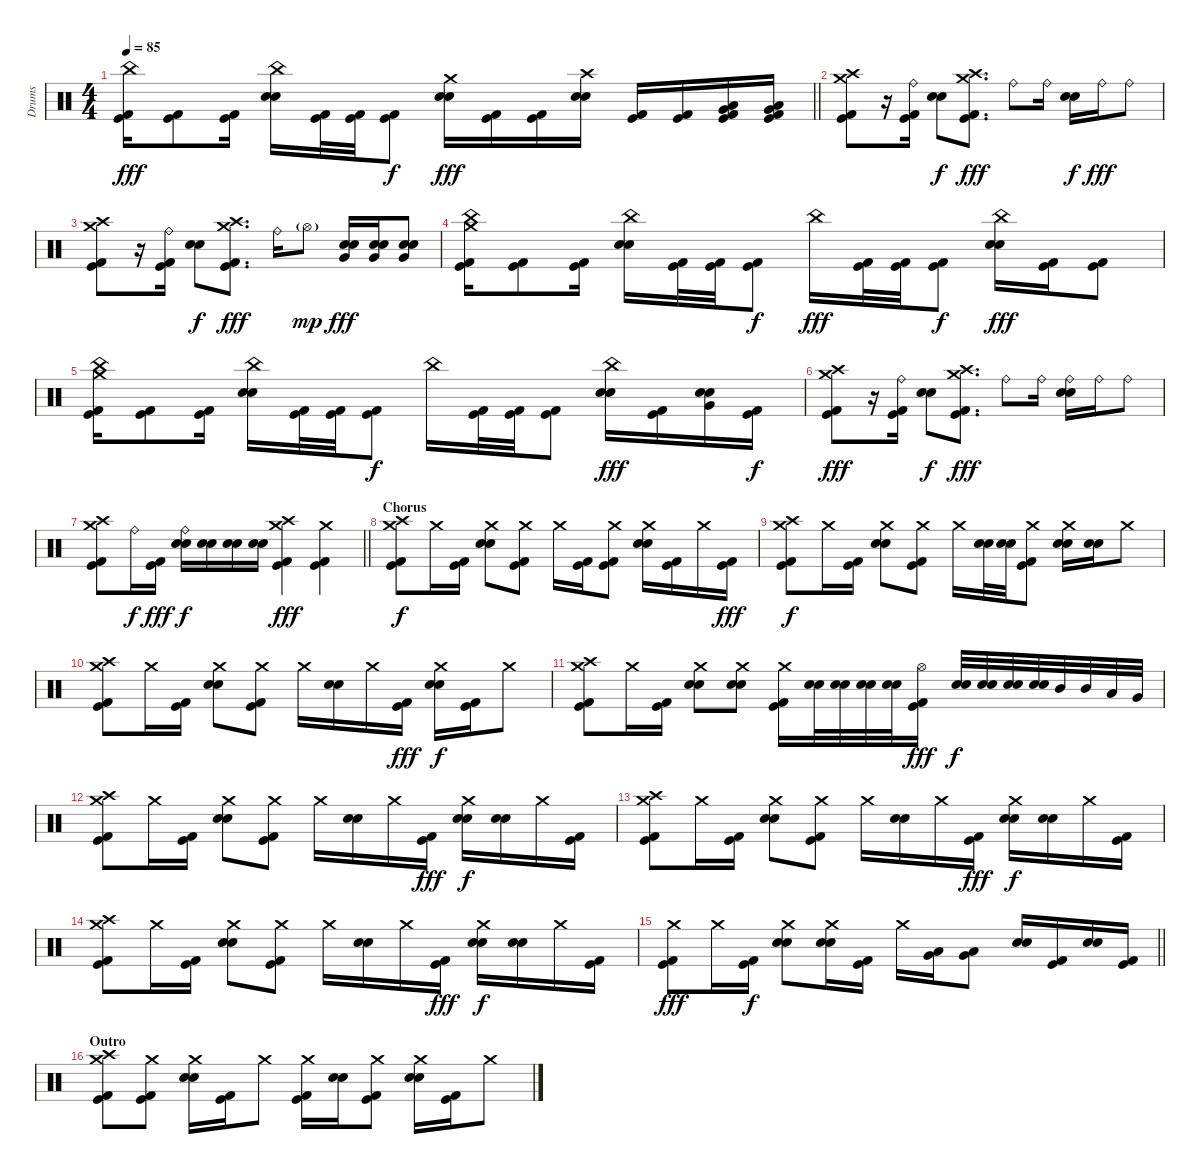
\track ("Drums" "Drums") {instrument percussion}
\staff {score}
\articulation defaults
\ts (4 4)
\tempo 85
\clef neutral
\barLineRight lightlight
\ks c
("China (hit)" "Kick (hit)" "Kick (hit) 2").16{dy fff} ("Kick (hit)" "Kick (hit) 2").8 ("Kick (hit)" "Kick (hit) 2").16 ("China (hit)" "Electric Snare (hit)" "Snare (hit) 2").16 ("Kick (hit)" "Kick (hit) 2").32 ("Kick (hit)" "Kick (hit) 2").32 ("Kick (hit)" "Kick (hit) 2").8{dy f} ("Crash medium (hit)" "Electric Snare (hit)" "Snare (hit) 2").16{dy fff} ("Kick (hit)" "Kick (hit) 2").16 ("Kick (hit)" "Kick (hit) 2").16 ("Crash high (hit)" "Electric Snare (hit)" "Snare (hit) 2").16 ("Kick (hit)" "Kick (hit) 2").16 ("Kick (hit)" "Kick (hit) 2").16 ("Very Low Tom (hit)" "Low Floor Tom (hit)" "Kick (hit)" "Kick (hit) 2").16 ("Very Low Tom (hit)" "Low Floor Tom (hit)" "Kick (hit)" "Kick (hit) 2").16 |
\section ("" " ")
("Crash high (hit)" "Crash medium (hit)" "Kick (hit)" "Kick (hit) 2").8 r.16 ("Ride (bell)" "Kick (hit)" "Kick (hit) 2").16 ("Electric Snare (hit)" "Snare (hit) 2").8{dy f} ("Crash medium (hit)" "Crash high (hit)" "Kick (hit)" "Kick (hit) 2").8{d dy fff} "Ride (bell)".8 "Ride (bell)".16 ("Electric Snare (hit)" "Snare (hit) 2").16{dy f} "Ride (bell)".16{dy fff} "Ride (bell)".8 |
("Crash high (hit)" "Crash medium (hit)" "Kick (hit)" "Kick (hit) 2").8 r.16 ("Ride (bell)" "Kick (hit)" "Kick (hit) 2").16 ("Electric Snare (hit)" "Snare (hit) 2").8{dy f} ("Crash medium (hit)" "Crash high (hit)" "Kick (hit)" "Kick (hit) 2").8{d dy fff} "Ride (bell)".16 "Hi-Hat (open)"{g}.8{dy mp} ("Electric Snare (hit)" "Snare (hit) 2" "Very Low Tom (hit)").16{dy fff} ("Electric Snare (hit)" "Snare (hit) 2" "Very Low Tom (hit)").16 ("Electric Snare (hit)" "Snare (hit) 2" "Very Low Tom (hit)").8 |
("Crash medium (hit)" "China (hit)" "Kick (hit)" "Kick (hit) 2").16 ("Kick (hit)" "Kick (hit) 2").8 ("Kick (hit)" "Kick (hit) 2").16 ("China (hit)" "Electric Snare (hit)" "Snare (hit) 2").16 ("Kick (hit)" "Kick (hit) 2").32 ("Kick (hit)" "Kick (hit) 2").32 ("Kick (hit)" "Kick (hit) 2").8{dy f} "China (hit)".16{dy fff} ("Kick (hit)" "Kick (hit) 2").32 ("Kick (hit)" "Kick (hit) 2").32 ("Kick (hit)" "Kick (hit) 2").8{dy f} ("China (hit)" "Electric Snare (hit)" "Snare (hit) 2").16{dy fff} ("Kick (hit)" "Kick (hit) 2").16 ("Kick (hit)" "Kick (hit) 2").8 |
("Crash medium (hit)" "China (hit)" "Kick (hit)" "Kick (hit) 2").16 ("Kick (hit)" "Kick (hit) 2").8 ("Kick (hit)" "Kick (hit) 2").16 ("China (hit)" "Electric Snare (hit)" "Snare (hit) 2").16 ("Kick (hit)" "Kick (hit) 2").32 ("Kick (hit)" "Kick (hit) 2").32 ("Kick (hit)" "Kick (hit) 2").8{dy f} "China (hit)".16 ("Kick (hit)" "Kick (hit) 2").32 ("Kick (hit)" "Kick (hit) 2").32 ("Kick (hit)" "Kick (hit) 2").8 ("China (hit)" "Electric Snare (hit)" "Snare (hit) 2").16{dy fff} ("Kick (hit)" "Kick (hit) 2").16 ("Very Low Tom (hit)" "Electric Snare (hit)" "Snare (hit) 2").16 ("Kick (hit)" "Kick (hit) 2").16{dy f} |
("Crash high (hit)" "Crash medium (hit)" "Kick (hit)" "Kick (hit) 2").8{dy fff} r.16 ("Ride (bell)" "Kick (hit)" "Kick (hit) 2").16 ("Electric Snare (hit)" "Snare (hit) 2").8{dy f} ("Crash medium (hit)" "Crash high (hit)" "Kick (hit)" "Kick (hit) 2").8{d dy fff} "Ride (bell)".8 "Ride (bell)".16 ("Ride (bell)" "Electric Snare (hit)" "Snare (hit) 2").16 "Ride (bell)".16 "Ride (bell)".8 |
\barLineRight lightlight
("Crash high (hit)" "Crash medium (hit)" "Kick (hit)" "Kick (hit) 2").8 "Ride (bell)".16{dy f} ("Kick (hit)" "Kick (hit) 2").16{dy fff} ("Ride (bell)" "Electric Snare (hit)" "Snare (hit) 2").16{dy f} ("Electric Snare (hit)" "Snare (hit) 2").16 ("Electric Snare (hit)" "Snare (hit) 2").16 ("Electric Snare (hit)" "Snare (hit) 2").16 ("Crash medium (hit)" "Crash high (hit)" "Kick (hit)" "Kick (hit) 2").4{dy fff} ("Crash medium (hit)" "Kick (hit)" "Kick (hit) 2").4 |
\section ("" "Chorus")
("Crash high (hit)" "Crash medium (hit)" "Kick (hit)" "Kick (hit) 2").8{dy f} "Crash medium (hit)".16 ("Kick (hit)" "Kick (hit) 2").16 ("Crash medium (hit)" "Electric Snare (hit)" "Snare (hit) 2").8 ("Crash medium (hit)" "Kick (hit)" "Kick (hit) 2").8 "Crash medium (hit)".16 ("Kick (hit)" "Kick (hit) 2").16 ("Crash medium (hit)" "Kick (hit)" "Kick (hit) 2").8 ("Crash medium (hit)" "Electric Snare (hit)" "Snare (hit) 2").16 ("Kick (hit)" "Kick (hit) 2").16 "Crash medium (hit)".16 ("Kick (hit)" "Kick (hit) 2").16{dy fff} |
("Crash high (hit)" "Crash medium (hit)" "Kick (hit)" "Kick (hit) 2").8{dy f} "Crash medium (hit)".16 ("Kick (hit)" "Kick (hit) 2").16 ("Crash medium (hit)" "Electric Snare (hit)" "Snare (hit) 2").8 ("Crash medium (hit)" "Kick (hit)" "Kick (hit) 2").8 "Crash medium (hit)".16 ("Electric Snare (hit)" "Snare (hit) 2").32 ("Electric Snare (hit)" "Snare (hit) 2").32 ("Crash medium (hit)" "Kick (hit)" "Kick (hit) 2").8 ("Crash medium (hit)" "Electric Snare (hit)" "Snare (hit) 2").16 ("Electric Snare (hit)" "Snare (hit) 2").16 "Crash medium (hit)".8 |
("Crash high (hit)" "Crash medium (hit)" "Kick (hit)" "Kick (hit) 2").8 "Crash medium (hit)".16 ("Kick (hit)" "Kick (hit) 2").16 ("Crash medium (hit)" "Electric Snare (hit)" "Snare (hit) 2").8 ("Crash medium (hit)" "Kick (hit)" "Kick (hit) 2").8 "Crash medium (hit)".16 ("Electric Snare (hit)" "Snare (hit) 2").16 "Crash medium (hit)".16 ("Kick (hit)" "Kick (hit) 2").16{dy fff} ("Crash medium (hit)" "Electric Snare (hit)" "Snare (hit) 2").16{dy f} ("Kick (hit)" "Kick (hit) 2").16 "Crash medium (hit)".8 |
("Crash high (hit)" "Crash medium (hit)" "Kick (hit)" "Kick (hit) 2").8 "Crash medium (hit)".16 ("Kick (hit)" "Kick (hit) 2").16 ("Crash medium (hit)" "Electric Snare (hit)" "Snare (hit) 2").8 ("Crash medium (hit)" "Electric Snare (hit)" "Snare (hit) 2").8 ("Crash medium (hit)" "Kick (hit)" "Kick (hit) 2").16 ("Electric Snare (hit)" "Snare (hit) 2").32 ("Electric Snare (hit)" "Snare (hit) 2").32 ("Electric Snare (hit)" "Snare (hit) 2").32 ("Electric Snare (hit)" "Snare (hit) 2").32 ("Hi-Hat (open)" "Kick (hit)" "Kick (hit) 2").16{dy fff} ("Electric Snare (hit)" "Snare (hit) 2").32{dy f} ("Electric Snare (hit)" "Snare (hit) 2").32 ("Electric Snare (hit)" "Snare (hit) 2").32 ("Electric Snare (hit)" "Snare (hit) 2").32 "Mid Tom (hit)".32 "Mid Tom (hit)".32 "Low Tom (hit)".32 "Very Low Tom (hit)".32 |
("Crash high (hit)" "Crash medium (hit)" "Kick (hit)" "Kick (hit) 2").8 "Crash medium (hit)".16 ("Kick (hit)" "Kick (hit) 2").16 ("Crash medium (hit)" "Electric Snare (hit)" "Snare (hit) 2").8 ("Crash medium (hit)" "Kick (hit)" "Kick (hit) 2").8 "Crash medium (hit)".16 ("Electric Snare (hit)" "Snare (hit) 2").16 "Crash medium (hit)".16 ("Kick (hit)" "Kick (hit) 2").16{dy fff} ("Crash medium (hit)" "Electric Snare (hit)" "Snare (hit) 2").16{dy f} ("Electric Snare (hit)" "Snare (hit) 2").16 "Crash medium (hit)".16 ("Kick (hit)" "Kick (hit) 2").16 |
("Crash high (hit)" "Crash medium (hit)" "Kick (hit)" "Kick (hit) 2").8 "Crash medium (hit)".16 ("Kick (hit)" "Kick (hit) 2").16 ("Crash medium (hit)" "Electric Snare (hit)" "Snare (hit) 2").8 ("Crash medium (hit)" "Kick (hit)" "Kick (hit) 2").8 "Crash medium (hit)".16 ("Electric Snare (hit)" "Snare (hit) 2").16 "Crash medium (hit)".16 ("Kick (hit)" "Kick (hit) 2").16{dy fff} ("Crash medium (hit)" "Electric Snare (hit)" "Snare (hit) 2").16{dy f} ("Electric Snare (hit)" "Snare (hit) 2").16 "Crash medium (hit)".16 ("Kick (hit)" "Kick (hit) 2").16 |
("Crash high (hit)" "Crash medium (hit)" "Kick (hit)" "Kick (hit) 2").8 "Crash medium (hit)".16 ("Kick (hit)" "Kick (hit) 2").16 ("Crash medium (hit)" "Electric Snare (hit)" "Snare (hit) 2").8 ("Crash medium (hit)" "Kick (hit)" "Kick (hit) 2").8 "Crash medium (hit)".16 ("Electric Snare (hit)" "Snare (hit) 2").16 "Crash medium (hit)".16 ("Kick (hit)" "Kick (hit) 2").16{dy fff} ("Crash medium (hit)" "Electric Snare (hit)" "Snare (hit) 2").16{dy f} ("Electric Snare (hit)" "Snare (hit) 2").16 "Crash medium (hit)".16 ("Kick (hit)" "Kick (hit) 2").16 |
\barLineRight lightlight
("Crash medium (hit)" "Kick (hit)" "Kick (hit) 2").8{dy fff} "Crash medium (hit)".16 ("Kick (hit)" "Kick (hit) 2").16{dy f} ("Crash medium (hit)" "Electric Snare (hit)" "Snare (hit) 2").8 ("Crash medium (hit)" "Electric Snare (hit)" "Snare (hit) 2").16 ("Kick (hit)" "Kick (hit) 2").16 "Crash medium (hit)".16 ("Low Tom (hit)" "Very Low Tom (hit)").16 ("Very Low Tom (hit)" "Low Floor Tom (hit)").8 ("Electric Snare (hit)" "Snare (hit) 2").16 ("Kick (hit)" "Kick (hit) 2").16 ("Electric Snare (hit)" "Snare (hit) 2").16 ("Kick (hit)" "Kick (hit) 2").16 |
\section ("" "Outro")
("Crash medium (hit)" "Crash high (hit)" "Kick (hit)" "Kick (hit) 2").8 ("Crash medium (hit)" "Kick (hit)" "Kick (hit) 2").8 ("Crash medium (hit)" "Electric Snare (hit)" "Snare (hit) 2").16 ("Kick (hit)" "Kick (hit) 2").16 "Crash medium (hit)".8 ("Crash medium (hit)" "Kick (hit)" "Kick (hit) 2").16 ("Electric Snare (hit)" "Snare (hit) 2").16 ("Crash medium (hit)" "Kick (hit)" "Kick (hit) 2").8 ("Crash medium (hit)" "Electric Snare (hit)" "Snare (hit) 2").16 ("Kick (hit)" "Kick (hit) 2").16 "Crash medium (hit)".8
